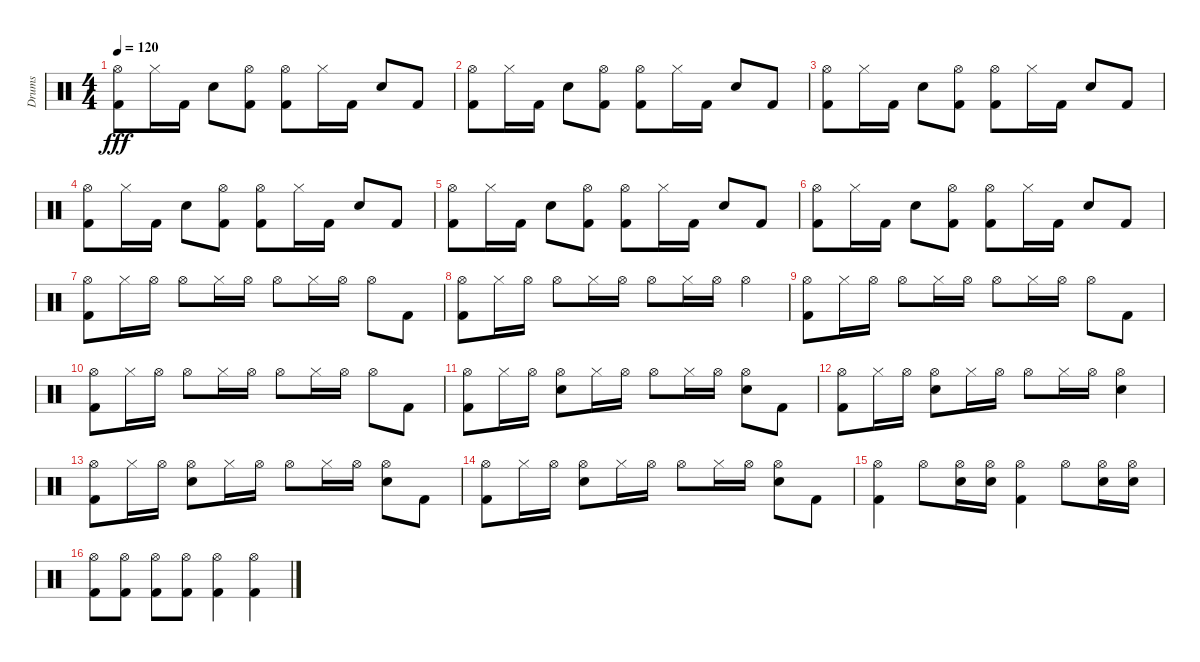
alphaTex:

\track ("Drums" "Drums") {instrument percussion}
\staff {score}
\articulation defaults
\ts (4 4)
\tempo 120
\clef neutral
\ks c
("Hi-Hat (open)" "Kick (hit) 2").8{dy fff} "Hi-Hat (closed)".16 "Kick (hit) 2".16 "Electric Snare (hit)".8 ("Hi-Hat (open)" "Kick (hit) 2").8 ("Hi-Hat (open)" "Kick (hit) 2").8 "Hi-Hat (closed)".16 "Kick (hit) 2".16 "Electric Snare (hit)".8 "Kick (hit) 2".8 |
("Hi-Hat (open)" "Kick (hit) 2").8 "Hi-Hat (closed)".16 "Kick (hit) 2".16 "Electric Snare (hit)".8 ("Hi-Hat (open)" "Kick (hit) 2").8 ("Hi-Hat (open)" "Kick (hit) 2").8 "Hi-Hat (closed)".16 "Kick (hit) 2".16 "Electric Snare (hit)".8 "Kick (hit) 2".8 |
("Hi-Hat (open)" "Kick (hit) 2").8 "Hi-Hat (closed)".16 "Kick (hit) 2".16 "Electric Snare (hit)".8 ("Hi-Hat (open)" "Kick (hit) 2").8 ("Hi-Hat (open)" "Kick (hit) 2").8 "Hi-Hat (closed)".16 "Kick (hit) 2".16 "Electric Snare (hit)".8 "Kick (hit) 2".8 |
("Hi-Hat (open)" "Kick (hit) 2").8 "Hi-Hat (closed)".16 "Kick (hit) 2".16 "Electric Snare (hit)".8 ("Hi-Hat (open)" "Kick (hit) 2").8 ("Hi-Hat (open)" "Kick (hit) 2").8 "Hi-Hat (closed)".16 "Kick (hit) 2".16 "Electric Snare (hit)".8 "Kick (hit) 2".8 |
("Hi-Hat (open)" "Kick (hit) 2").8 "Hi-Hat (closed)".16 "Kick (hit) 2".16 "Electric Snare (hit)".8 ("Hi-Hat (open)" "Kick (hit) 2").8 ("Hi-Hat (open)" "Kick (hit) 2").8 "Hi-Hat (closed)".16 "Kick (hit) 2".16 "Electric Snare (hit)".8 "Kick (hit) 2".8 |
("Hi-Hat (open)" "Kick (hit) 2").8 "Hi-Hat (closed)".16 "Kick (hit) 2".16 "Electric Snare (hit)".8 ("Hi-Hat (open)" "Kick (hit) 2").8 ("Hi-Hat (open)" "Kick (hit) 2").8 "Hi-Hat (closed)".16 "Kick (hit) 2".16 "Electric Snare (hit)".8 "Kick (hit) 2".8 |
("Hi-Hat (open)" "Kick (hit) 2").8 "Hi-Hat (closed)".16 "Hi-Hat (open)".16 "Hi-Hat (open)".8 "Hi-Hat (closed)".16 "Hi-Hat (open)".16 "Hi-Hat (open)".8 "Hi-Hat (closed)".16 "Hi-Hat (open)".16 "Hi-Hat (open)".8 "Kick (hit) 2".8 |
("Hi-Hat (open)" "Kick (hit) 2").8 "Hi-Hat (closed)".16 "Hi-Hat (open)".16 "Hi-Hat (open)".8 "Hi-Hat (closed)".16 "Hi-Hat (open)".16 "Hi-Hat (open)".8 "Hi-Hat (closed)".16 "Hi-Hat (open)".16 "Hi-Hat (open)".4 |
("Hi-Hat (open)" "Kick (hit) 2").8 "Hi-Hat (closed)".16 "Hi-Hat (open)".16 "Hi-Hat (open)".8 "Hi-Hat (closed)".16 "Hi-Hat (open)".16 "Hi-Hat (open)".8 "Hi-Hat (closed)".16 "Hi-Hat (open)".16 "Hi-Hat (open)".8 "Kick (hit) 2".8 |
("Hi-Hat (open)" "Kick (hit) 2").8 "Hi-Hat (closed)".16 "Hi-Hat (open)".16 "Hi-Hat (open)".8 "Hi-Hat (closed)".16 "Hi-Hat (open)".16 "Hi-Hat (open)".8 "Hi-Hat (closed)".16 "Hi-Hat (open)".16 "Hi-Hat (open)".8 "Kick (hit) 2".8 |
("Hi-Hat (open)" "Kick (hit) 2").8 "Hi-Hat (closed)".16 "Hi-Hat (open)".16 ("Hi-Hat (open)" "Electric Snare (hit)").8 "Hi-Hat (closed)".16 "Hi-Hat (open)".16 "Hi-Hat (open)".8 "Hi-Hat (closed)".16 "Hi-Hat (open)".16 ("Hi-Hat (open)" "Electric Snare (hit)").8 "Kick (hit) 2".8 |
("Hi-Hat (open)" "Kick (hit) 2").8 "Hi-Hat (closed)".16 "Hi-Hat (open)".16 ("Hi-Hat (open)" "Electric Snare (hit)").8 "Hi-Hat (closed)".16 "Hi-Hat (open)".16 "Hi-Hat (open)".8 "Hi-Hat (closed)".16 "Hi-Hat (open)".16 ("Hi-Hat (open)" "Electric Snare (hit)").4 |
("Hi-Hat (open)" "Kick (hit) 2").8 "Hi-Hat (closed)".16 "Hi-Hat (open)".16 ("Hi-Hat (open)" "Electric Snare (hit)").8 "Hi-Hat (closed)".16 "Hi-Hat (open)".16 "Hi-Hat (open)".8 "Hi-Hat (closed)".16 "Hi-Hat (open)".16 ("Hi-Hat (open)" "Electric Snare (hit)").8 "Kick (hit) 2".8 |
("Hi-Hat (open)" "Kick (hit) 2").8 "Hi-Hat (closed)".16 "Hi-Hat (open)".16 ("Hi-Hat (open)" "Electric Snare (hit)").8 "Hi-Hat (closed)".16 "Hi-Hat (open)".16 "Hi-Hat (open)".8 "Hi-Hat (closed)".16 "Hi-Hat (open)".16 ("Hi-Hat (open)" "Electric Snare (hit)").8 "Kick (hit) 2".8 |
("Hi-Hat (open)" "Kick (hit) 2").4 "Hi-Hat (open)".8 ("Hi-Hat (open)" "Electric Snare (hit)").16 ("Hi-Hat (open)" "Electric Snare (hit)").16 ("Hi-Hat (open)" "Kick (hit) 2").4 "Hi-Hat (open)".8 ("Hi-Hat (open)" "Electric Snare (hit)").16 ("Hi-Hat (open)" "Electric Snare (hit)").16 |
("Hi-Hat (open)" "Kick (hit) 2").8 ("Hi-Hat (open)" "Kick (hit) 2").8 ("Hi-Hat (open)" "Kick (hit) 2").8 ("Hi-Hat (open)" "Kick (hit) 2").8 ("Hi-Hat (open)" "Kick (hit) 2").4 ("Hi-Hat (open)" "Kick (hit) 2").4
